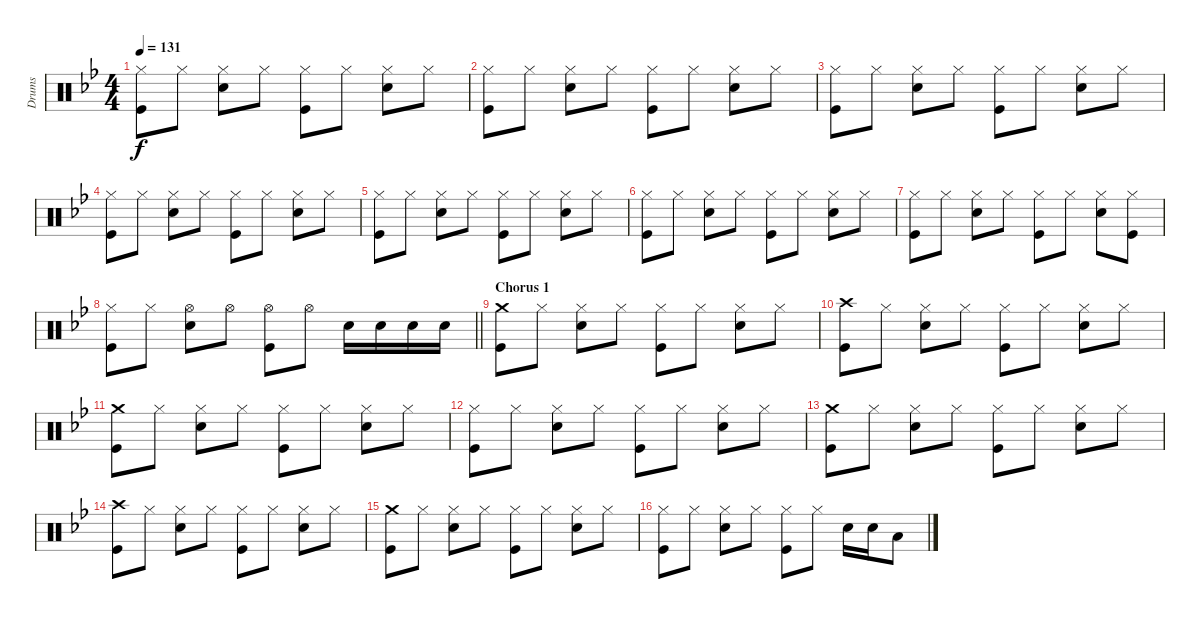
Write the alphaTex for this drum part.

\track ("Drums" "Drums") {instrument percussion}
\staff {score}
\articulation defaults
\ts (4 4)
\tempo 131
\clef neutral
\ks bb
("Hi-Hat (closed)" "Kick (hit)").8{dy f} "Hi-Hat (closed)".8 ("Hi-Hat (closed)" "Snare (hit) 2").8 "Hi-Hat (closed)".8 ("Hi-Hat (closed)" "Kick (hit)").8 "Hi-Hat (closed)".8 ("Hi-Hat (closed)" "Snare (hit) 2").8 "Hi-Hat (closed)".8 |
("Hi-Hat (closed)" "Kick (hit)").8 "Hi-Hat (closed)".8 ("Hi-Hat (closed)" "Snare (hit) 2").8 "Hi-Hat (closed)".8 ("Hi-Hat (closed)" "Kick (hit)").8 "Hi-Hat (closed)".8 ("Hi-Hat (closed)" "Snare (hit) 2").8 "Hi-Hat (closed)".8 |
("Hi-Hat (closed)" "Kick (hit)").8 "Hi-Hat (closed)".8 ("Hi-Hat (closed)" "Snare (hit) 2").8 "Hi-Hat (closed)".8 ("Hi-Hat (closed)" "Kick (hit)").8 "Hi-Hat (closed)".8 ("Hi-Hat (closed)" "Snare (hit) 2").8 "Hi-Hat (closed)".8 |
("Hi-Hat (closed)" "Kick (hit)").8 "Hi-Hat (closed)".8 ("Hi-Hat (closed)" "Snare (hit) 2").8 "Hi-Hat (closed)".8 ("Hi-Hat (closed)" "Kick (hit)").8 "Hi-Hat (closed)".8 ("Hi-Hat (closed)" "Snare (hit) 2").8 "Hi-Hat (closed)".8 |
("Hi-Hat (closed)" "Kick (hit)").8 "Hi-Hat (closed)".8 ("Hi-Hat (closed)" "Snare (hit) 2").8 "Hi-Hat (closed)".8 ("Hi-Hat (closed)" "Kick (hit)").8 "Hi-Hat (closed)".8 ("Hi-Hat (closed)" "Snare (hit) 2").8 "Hi-Hat (closed)".8 |
("Hi-Hat (closed)" "Kick (hit)").8 "Hi-Hat (closed)".8 ("Hi-Hat (closed)" "Snare (hit) 2").8 "Hi-Hat (closed)".8 ("Hi-Hat (closed)" "Kick (hit)").8 "Hi-Hat (closed)".8 ("Hi-Hat (closed)" "Snare (hit) 2").8 "Hi-Hat (closed)".8 |
("Hi-Hat (closed)" "Kick (hit)").8 "Hi-Hat (closed)".8 ("Hi-Hat (closed)" "Snare (hit) 2").8 "Hi-Hat (closed)".8 ("Hi-Hat (closed)" "Kick (hit)").8 "Hi-Hat (closed)".8 ("Hi-Hat (closed)" "Snare (hit) 2").8 ("Hi-Hat (closed)" "Kick (hit)").8 |
\barLineRight lightlight
("Hi-Hat (closed)" "Kick (hit)").8 "Hi-Hat (closed)".8 ("Hi-Hat (open)" "Snare (hit) 2").8 "Hi-Hat (open)".8 ("Hi-Hat (open)" "Kick (hit)").8 "Hi-Hat (open)".8 "Snare (hit) 2".16 "Snare (hit) 2".16 "Snare (hit) 2".16 "Snare (hit) 2".16 |
\section ("" "Chorus 1")
("Crash medium (hit)" "Kick (hit)").8 "Hi-Hat (closed)".8 ("Hi-Hat (closed)" "Snare (hit) 2").8 "Hi-Hat (closed)".8 ("Hi-Hat (closed)" "Kick (hit)").8 "Hi-Hat (closed)".8 ("Hi-Hat (closed)" "Snare (hit) 2").8 "Hi-Hat (closed)".8 |
("Crash high (hit)" "Kick (hit)").8 "Hi-Hat (closed)".8 ("Hi-Hat (closed)" "Snare (hit) 2").8 "Hi-Hat (closed)".8 ("Hi-Hat (closed)" "Kick (hit)").8 "Hi-Hat (closed)".8 ("Hi-Hat (closed)" "Snare (hit) 2").8 "Hi-Hat (closed)".8 |
("Crash medium (hit)" "Kick (hit)").8 "Hi-Hat (closed)".8 ("Hi-Hat (closed)" "Snare (hit) 2").8 "Hi-Hat (closed)".8 ("Hi-Hat (closed)" "Kick (hit)").8 "Hi-Hat (closed)".8 ("Hi-Hat (closed)" "Snare (hit) 2").8 "Hi-Hat (closed)".8 |
("Hi-Hat (closed)" "Kick (hit)").8 "Hi-Hat (closed)".8 ("Hi-Hat (closed)" "Snare (hit) 2").8 "Hi-Hat (closed)".8 ("Hi-Hat (closed)" "Kick (hit)").8 "Hi-Hat (closed)".8 ("Hi-Hat (closed)" "Snare (hit) 2").8 "Hi-Hat (closed)".8 |
("Crash medium (hit)" "Kick (hit)").8 "Hi-Hat (closed)".8 ("Hi-Hat (closed)" "Snare (hit) 2").8 "Hi-Hat (closed)".8 ("Hi-Hat (closed)" "Kick (hit)").8 "Hi-Hat (closed)".8 ("Hi-Hat (closed)" "Snare (hit) 2").8 "Hi-Hat (closed)".8 |
("Crash high (hit)" "Kick (hit)").8 "Hi-Hat (closed)".8 ("Hi-Hat (closed)" "Snare (hit) 2").8 "Hi-Hat (closed)".8 ("Hi-Hat (closed)" "Kick (hit)").8 "Hi-Hat (closed)".8 ("Hi-Hat (closed)" "Snare (hit) 2").8 "Hi-Hat (closed)".8 |
("Crash medium (hit)" "Kick (hit)").8 "Hi-Hat (closed)".8 ("Hi-Hat (closed)" "Snare (hit) 2").8 "Hi-Hat (closed)".8 ("Hi-Hat (closed)" "Kick (hit)").8 "Hi-Hat (closed)".8 ("Hi-Hat (closed)" "Snare (hit) 2").8 "Hi-Hat (closed)".8 |
("Hi-Hat (closed)" "Kick (hit)").8 "Hi-Hat (closed)".8 ("Hi-Hat (closed)" "Snare (hit) 2").8 "Hi-Hat (closed)".8 ("Hi-Hat (closed)" "Kick (hit)").8 "Hi-Hat (closed)".8 "Snare (hit) 2".16 "Snare (hit) 2".16 "Low Tom (hit)".8
